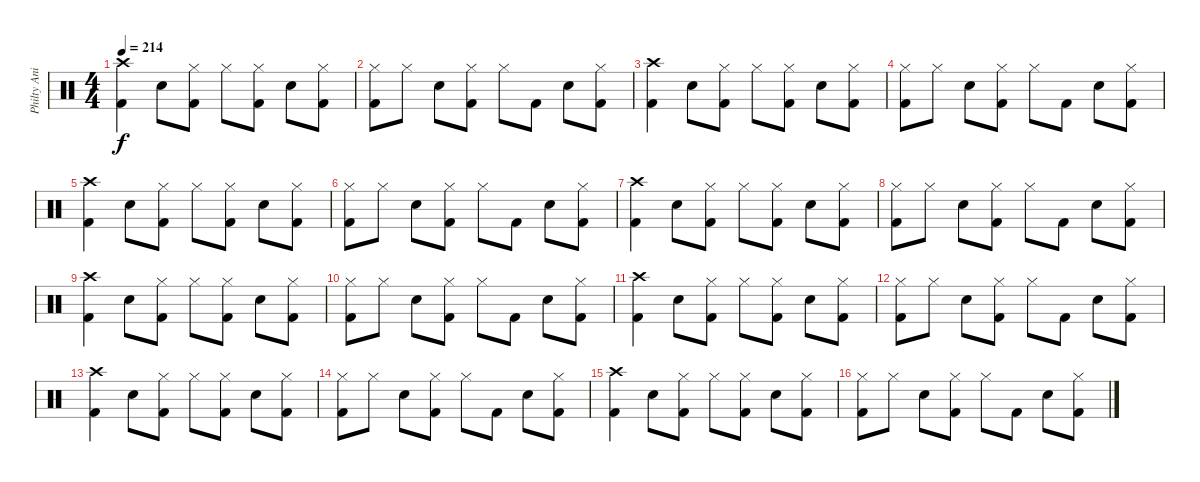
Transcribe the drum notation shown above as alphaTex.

\track ("Philty Animal" "Philty Ani") {instrument percussion}
\staff {score}
\articulation defaults
\ts (4 4)
\tempo 214
\clef neutral
\ks c
("Kick (hit) 2" "Crash high (hit)").4{dy f} "Snare (hit) 2".8 ("Kick (hit) 2" "Hi-Hat (closed)").8 "Hi-Hat (closed)".8 ("Kick (hit) 2" "Hi-Hat (closed)").8 "Snare (hit) 2".8 ("Kick (hit) 2" "Hi-Hat (closed)").8 |
("Kick (hit) 2" "Hi-Hat (closed)").8 "Hi-Hat (closed)".8 "Snare (hit) 2".8 ("Hi-Hat (closed)" "Kick (hit) 2").8 "Hi-Hat (closed)".8 "Kick (hit) 2".8 "Snare (hit) 2".8 ("Kick (hit) 2" "Hi-Hat (closed)").8 |
("Kick (hit) 2" "Crash high (hit)").4 "Snare (hit) 2".8 ("Kick (hit) 2" "Hi-Hat (closed)").8 "Hi-Hat (closed)".8 ("Kick (hit) 2" "Hi-Hat (closed)").8 "Snare (hit) 2".8 ("Kick (hit) 2" "Hi-Hat (closed)").8 |
("Kick (hit) 2" "Hi-Hat (closed)").8 "Hi-Hat (closed)".8 "Snare (hit) 2".8 ("Hi-Hat (closed)" "Kick (hit) 2").8 "Hi-Hat (closed)".8 "Kick (hit) 2".8 "Snare (hit) 2".8 ("Kick (hit) 2" "Hi-Hat (closed)").8 |
("Kick (hit) 2" "Crash high (hit)").4 "Snare (hit) 2".8 ("Kick (hit) 2" "Hi-Hat (closed)").8 "Hi-Hat (closed)".8 ("Kick (hit) 2" "Hi-Hat (closed)").8 "Snare (hit) 2".8 ("Kick (hit) 2" "Hi-Hat (closed)").8 |
("Kick (hit) 2" "Hi-Hat (closed)").8 "Hi-Hat (closed)".8 "Snare (hit) 2".8 ("Hi-Hat (closed)" "Kick (hit) 2").8 "Hi-Hat (closed)".8 "Kick (hit) 2".8 "Snare (hit) 2".8 ("Kick (hit) 2" "Hi-Hat (closed)").8 |
("Kick (hit) 2" "Crash high (hit)").4 "Snare (hit) 2".8 ("Kick (hit) 2" "Hi-Hat (closed)").8 "Hi-Hat (closed)".8 ("Kick (hit) 2" "Hi-Hat (closed)").8 "Snare (hit) 2".8 ("Kick (hit) 2" "Hi-Hat (closed)").8 |
("Kick (hit) 2" "Hi-Hat (closed)").8 "Hi-Hat (closed)".8 "Snare (hit) 2".8 ("Hi-Hat (closed)" "Kick (hit) 2").8 "Hi-Hat (closed)".8 "Kick (hit) 2".8 "Snare (hit) 2".8 ("Kick (hit) 2" "Hi-Hat (closed)").8 |
("Kick (hit) 2" "Crash high (hit)").4 "Snare (hit) 2".8 ("Kick (hit) 2" "Hi-Hat (closed)").8 "Hi-Hat (closed)".8 ("Kick (hit) 2" "Hi-Hat (closed)").8 "Snare (hit) 2".8 ("Kick (hit) 2" "Hi-Hat (closed)").8 |
("Kick (hit) 2" "Hi-Hat (closed)").8 "Hi-Hat (closed)".8 "Snare (hit) 2".8 ("Hi-Hat (closed)" "Kick (hit) 2").8 "Hi-Hat (closed)".8 "Kick (hit) 2".8 "Snare (hit) 2".8 ("Kick (hit) 2" "Hi-Hat (closed)").8 |
("Kick (hit) 2" "Crash high (hit)").4 "Snare (hit) 2".8 ("Kick (hit) 2" "Hi-Hat (closed)").8 "Hi-Hat (closed)".8 ("Kick (hit) 2" "Hi-Hat (closed)").8 "Snare (hit) 2".8 ("Kick (hit) 2" "Hi-Hat (closed)").8 |
("Kick (hit) 2" "Hi-Hat (closed)").8 "Hi-Hat (closed)".8 "Snare (hit) 2".8 ("Hi-Hat (closed)" "Kick (hit) 2").8 "Hi-Hat (closed)".8 "Kick (hit) 2".8 "Snare (hit) 2".8 ("Kick (hit) 2" "Hi-Hat (closed)").8 |
("Kick (hit) 2" "Crash high (hit)").4 "Snare (hit) 2".8 ("Kick (hit) 2" "Hi-Hat (closed)").8 "Hi-Hat (closed)".8 ("Kick (hit) 2" "Hi-Hat (closed)").8 "Snare (hit) 2".8 ("Kick (hit) 2" "Hi-Hat (closed)").8 |
("Kick (hit) 2" "Hi-Hat (closed)").8 "Hi-Hat (closed)".8 "Snare (hit) 2".8 ("Hi-Hat (closed)" "Kick (hit) 2").8 "Hi-Hat (closed)".8 "Kick (hit) 2".8 "Snare (hit) 2".8 ("Kick (hit) 2" "Hi-Hat (closed)").8 |
("Kick (hit) 2" "Crash high (hit)").4 "Snare (hit) 2".8 ("Kick (hit) 2" "Hi-Hat (closed)").8 "Hi-Hat (closed)".8 ("Kick (hit) 2" "Hi-Hat (closed)").8 "Snare (hit) 2".8 ("Kick (hit) 2" "Hi-Hat (closed)").8 |
("Kick (hit) 2" "Hi-Hat (closed)").8 "Hi-Hat (closed)".8 "Snare (hit) 2".8 ("Hi-Hat (closed)" "Kick (hit) 2").8 "Hi-Hat (closed)".8 "Kick (hit) 2".8 "Snare (hit) 2".8 ("Kick (hit) 2" "Hi-Hat (closed)").8
